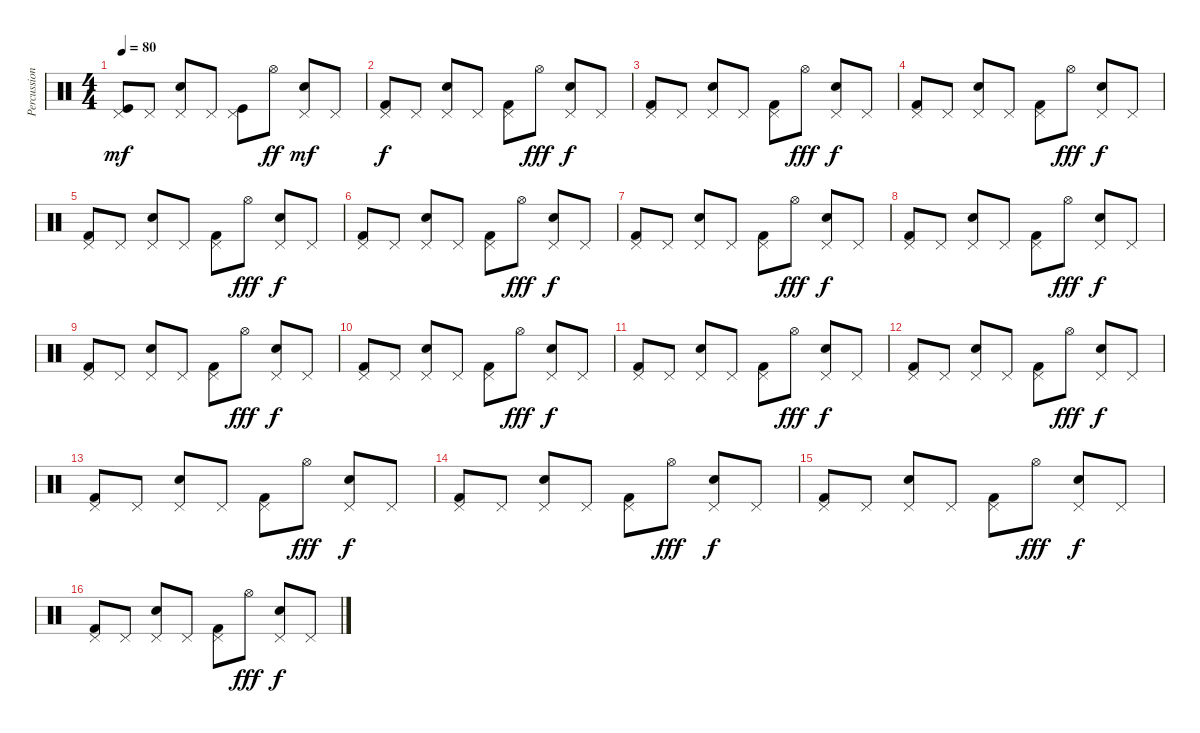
\track ("Percussions" "Percussion") {instrument percussion}
\staff {score}
\articulation defaults
\ts (4 4)
\tempo 80
\clef neutral
\ks c
("Pedal Hi-Hat (hit)" "Kick (hit)").8{dy mf} "Pedal Hi-Hat (hit)".8 ("Pedal Hi-Hat (hit)" "Snare (hit) 2").8 "Pedal Hi-Hat (hit)".8 ("Pedal Hi-Hat (hit)" "Kick (hit)").8 "Hi-Hat (open)".8{dy ff} ("Pedal Hi-Hat (hit)" "Snare (hit) 2").8{dy mf} "Pedal Hi-Hat (hit)".8 |
("Pedal Hi-Hat (hit)" "Kick (hit) 2").8{dy f} "Pedal Hi-Hat (hit)".8 ("Pedal Hi-Hat (hit)" "Snare (hit) 2").8 "Pedal Hi-Hat (hit)".8 ("Pedal Hi-Hat (hit)" "Kick (hit) 2").8 "Hi-Hat (open)".8{dy fff} ("Pedal Hi-Hat (hit)" "Snare (hit) 2").8{dy f} "Pedal Hi-Hat (hit)".8 |
("Pedal Hi-Hat (hit)" "Kick (hit) 2").8 "Pedal Hi-Hat (hit)".8 ("Pedal Hi-Hat (hit)" "Snare (hit) 2").8 "Pedal Hi-Hat (hit)".8 ("Pedal Hi-Hat (hit)" "Kick (hit) 2").8 "Hi-Hat (open)".8{dy fff} ("Pedal Hi-Hat (hit)" "Snare (hit) 2").8{dy f} "Pedal Hi-Hat (hit)".8 |
("Pedal Hi-Hat (hit)" "Kick (hit) 2").8 "Pedal Hi-Hat (hit)".8 ("Pedal Hi-Hat (hit)" "Snare (hit) 2").8 "Pedal Hi-Hat (hit)".8 ("Pedal Hi-Hat (hit)" "Kick (hit) 2").8 "Hi-Hat (open)".8{dy fff} ("Pedal Hi-Hat (hit)" "Snare (hit) 2").8{dy f} "Pedal Hi-Hat (hit)".8 |
("Pedal Hi-Hat (hit)" "Kick (hit) 2").8 "Pedal Hi-Hat (hit)".8 ("Pedal Hi-Hat (hit)" "Snare (hit) 2").8 "Pedal Hi-Hat (hit)".8 ("Pedal Hi-Hat (hit)" "Kick (hit) 2").8 "Hi-Hat (open)".8{dy fff} ("Pedal Hi-Hat (hit)" "Snare (hit) 2").8{dy f} "Pedal Hi-Hat (hit)".8 |
("Pedal Hi-Hat (hit)" "Kick (hit) 2").8 "Pedal Hi-Hat (hit)".8 ("Pedal Hi-Hat (hit)" "Snare (hit) 2").8 "Pedal Hi-Hat (hit)".8 ("Pedal Hi-Hat (hit)" "Kick (hit) 2").8 "Hi-Hat (open)".8{dy fff} ("Pedal Hi-Hat (hit)" "Snare (hit) 2").8{dy f} "Pedal Hi-Hat (hit)".8 |
("Pedal Hi-Hat (hit)" "Kick (hit) 2").8 "Pedal Hi-Hat (hit)".8 ("Pedal Hi-Hat (hit)" "Snare (hit) 2").8 "Pedal Hi-Hat (hit)".8 ("Pedal Hi-Hat (hit)" "Kick (hit) 2").8 "Hi-Hat (open)".8{dy fff} ("Pedal Hi-Hat (hit)" "Snare (hit) 2").8{dy f} "Pedal Hi-Hat (hit)".8 |
("Pedal Hi-Hat (hit)" "Kick (hit) 2").8 "Pedal Hi-Hat (hit)".8 ("Pedal Hi-Hat (hit)" "Snare (hit) 2").8 "Pedal Hi-Hat (hit)".8 ("Pedal Hi-Hat (hit)" "Kick (hit) 2").8 "Hi-Hat (open)".8{dy fff} ("Pedal Hi-Hat (hit)" "Snare (hit) 2").8{dy f} "Pedal Hi-Hat (hit)".8 |
("Pedal Hi-Hat (hit)" "Kick (hit) 2").8 "Pedal Hi-Hat (hit)".8 ("Pedal Hi-Hat (hit)" "Snare (hit) 2").8 "Pedal Hi-Hat (hit)".8 ("Pedal Hi-Hat (hit)" "Kick (hit) 2").8 "Hi-Hat (open)".8{dy fff} ("Pedal Hi-Hat (hit)" "Snare (hit) 2").8{dy f} "Pedal Hi-Hat (hit)".8 |
("Pedal Hi-Hat (hit)" "Kick (hit) 2").8 "Pedal Hi-Hat (hit)".8 ("Pedal Hi-Hat (hit)" "Snare (hit) 2").8 "Pedal Hi-Hat (hit)".8 ("Pedal Hi-Hat (hit)" "Kick (hit) 2").8 "Hi-Hat (open)".8{dy fff} ("Pedal Hi-Hat (hit)" "Snare (hit) 2").8{dy f} "Pedal Hi-Hat (hit)".8 |
("Pedal Hi-Hat (hit)" "Kick (hit) 2").8 "Pedal Hi-Hat (hit)".8 ("Pedal Hi-Hat (hit)" "Snare (hit) 2").8 "Pedal Hi-Hat (hit)".8 ("Pedal Hi-Hat (hit)" "Kick (hit) 2").8 "Hi-Hat (open)".8{dy fff} ("Pedal Hi-Hat (hit)" "Snare (hit) 2").8{dy f} "Pedal Hi-Hat (hit)".8 |
("Pedal Hi-Hat (hit)" "Kick (hit) 2").8 "Pedal Hi-Hat (hit)".8 ("Pedal Hi-Hat (hit)" "Snare (hit) 2").8 "Pedal Hi-Hat (hit)".8 ("Pedal Hi-Hat (hit)" "Kick (hit) 2").8 "Hi-Hat (open)".8{dy fff} ("Pedal Hi-Hat (hit)" "Snare (hit) 2").8{dy f} "Pedal Hi-Hat (hit)".8 |
("Pedal Hi-Hat (hit)" "Kick (hit) 2").8 "Pedal Hi-Hat (hit)".8 ("Pedal Hi-Hat (hit)" "Snare (hit) 2").8 "Pedal Hi-Hat (hit)".8 ("Pedal Hi-Hat (hit)" "Kick (hit) 2").8 "Hi-Hat (open)".8{dy fff} ("Pedal Hi-Hat (hit)" "Snare (hit) 2").8{dy f} "Pedal Hi-Hat (hit)".8 |
("Pedal Hi-Hat (hit)" "Kick (hit) 2").8 "Pedal Hi-Hat (hit)".8 ("Pedal Hi-Hat (hit)" "Snare (hit) 2").8 "Pedal Hi-Hat (hit)".8 ("Pedal Hi-Hat (hit)" "Kick (hit) 2").8 "Hi-Hat (open)".8{dy fff} ("Pedal Hi-Hat (hit)" "Snare (hit) 2").8{dy f} "Pedal Hi-Hat (hit)".8 |
("Pedal Hi-Hat (hit)" "Kick (hit) 2").8 "Pedal Hi-Hat (hit)".8 ("Pedal Hi-Hat (hit)" "Snare (hit) 2").8 "Pedal Hi-Hat (hit)".8 ("Pedal Hi-Hat (hit)" "Kick (hit) 2").8 "Hi-Hat (open)".8{dy fff} ("Pedal Hi-Hat (hit)" "Snare (hit) 2").8{dy f} "Pedal Hi-Hat (hit)".8 |
("Pedal Hi-Hat (hit)" "Kick (hit) 2").8 "Pedal Hi-Hat (hit)".8 ("Pedal Hi-Hat (hit)" "Snare (hit) 2").8 "Pedal Hi-Hat (hit)".8 ("Pedal Hi-Hat (hit)" "Kick (hit) 2").8 "Hi-Hat (open)".8{dy fff} ("Pedal Hi-Hat (hit)" "Snare (hit) 2").8{dy f} "Pedal Hi-Hat (hit)".8
